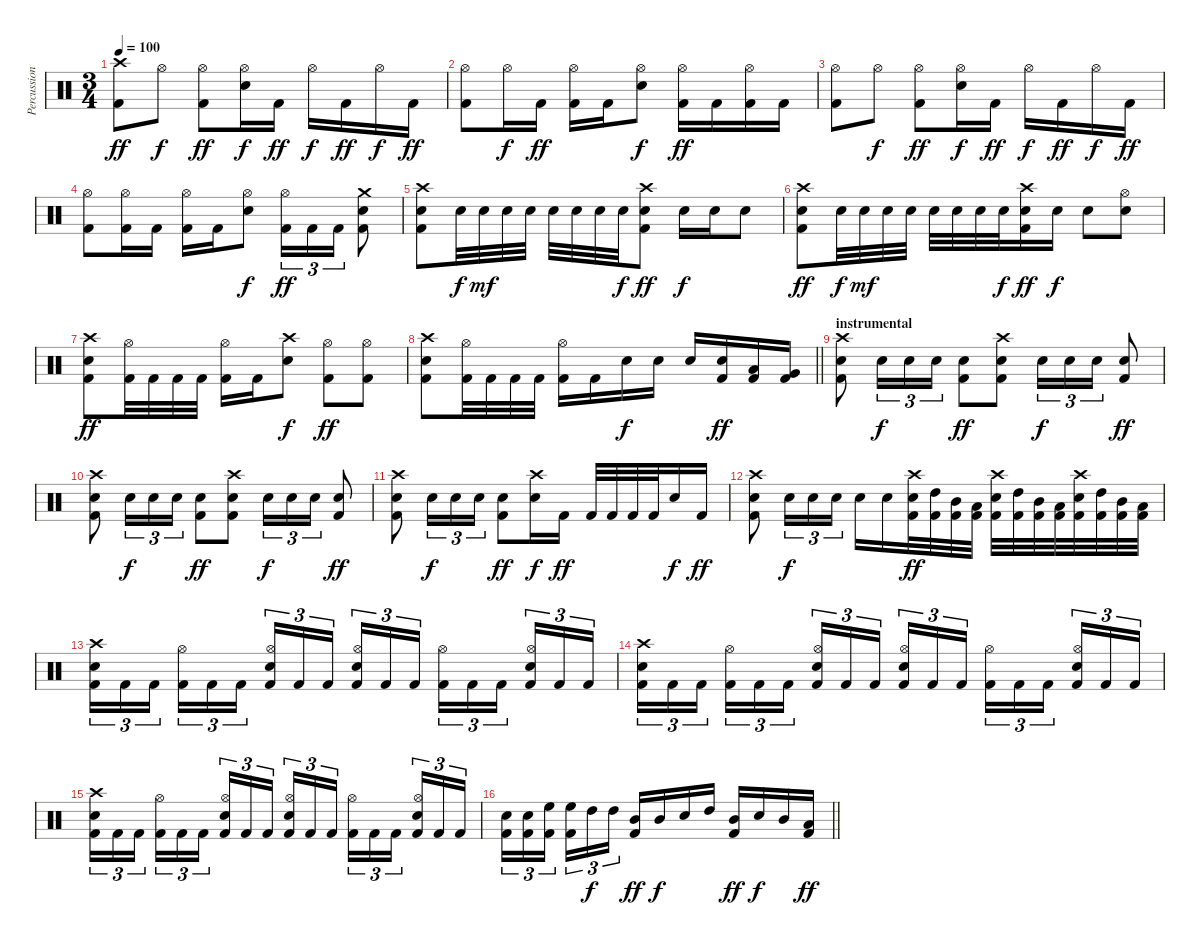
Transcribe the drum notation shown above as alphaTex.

\track ("Percussion" "Percussion") {instrument percussion}
\staff {score}
\articulation defaults
\ts (3 4)
\tempo 100
\clef neutral
\ks c
("Crash high (hit)" "Kick (hit) 2").8{dy ff} "Hi-Hat (open)".8{dy f} ("Hi-Hat (open)" "Kick (hit) 2").8{dy ff} ("Hi-Hat (open)" "Snare (hit) 2").16{dy f} "Kick (hit) 2".16{dy ff} "Hi-Hat (open)".16{dy f} "Kick (hit) 2".16{dy ff} "Hi-Hat (open)".16{dy f} "Kick (hit) 2".16{dy ff} |
("Hi-Hat (open)" "Kick (hit) 2").8 "Hi-Hat (open)".16{dy f} "Kick (hit) 2".16{dy ff} ("Hi-Hat (open)" "Kick (hit) 2").16 "Kick (hit) 2".16 ("Hi-Hat (open)" "Snare (hit) 2").8{dy f} ("Hi-Hat (open)" "Kick (hit) 2").16{dy ff} "Kick (hit) 2".16 ("Hi-Hat (open)" "Kick (hit) 2").16 "Kick (hit) 2".16 |
("Hi-Hat (open)" "Kick (hit) 2").8 "Hi-Hat (open)".8{dy f} ("Hi-Hat (open)" "Kick (hit) 2").8{dy ff} ("Hi-Hat (open)" "Snare (hit) 2").16{dy f} "Kick (hit) 2".16{dy ff} "Hi-Hat (open)".16{dy f} "Kick (hit) 2".16{dy ff} "Hi-Hat (open)".16{dy f} "Kick (hit) 2".16{dy ff} |
("Hi-Hat (open)" "Kick (hit) 2").8 ("Hi-Hat (open)" "Kick (hit) 2").16 "Kick (hit) 2".16 ("Hi-Hat (open)" "Kick (hit) 2").16 "Kick (hit) 2".16 ("Hi-Hat (open)" "Snare (hit) 2").8{dy f} ("Hi-Hat (open)" "Kick (hit) 2").16{tu (3 2) dy ff} "Kick (hit) 2".16{tu (3 2)} "Kick (hit) 2".16{tu (3 2)} ("Crash medium (hit)" "Snare (hit) 2" "Kick (hit) 2").8 |
("Crash high (hit)" "Snare (hit) 2" "Kick (hit) 2").8 "Snare (hit) 2".32{dy f} "Snare (hit) 2".32{dy mf} "Snare (hit) 2".32 "Snare (hit) 2".32 "Snare (hit) 2".32 "Snare (hit) 2".32 "Snare (hit) 2".32 "Snare (hit) 2".32{dy f} ("Crash high (hit)" "Snare (hit) 2" "Kick (hit) 2").8{dy ff} "Snare (hit) 2".16{dy f} "Snare (hit) 2".16 "Snare (hit) 2".8 |
("Crash high (hit)" "Snare (hit) 2" "Kick (hit) 2").8{dy ff} "Snare (hit) 2".32{dy f} "Snare (hit) 2".32{dy mf} "Snare (hit) 2".32 "Snare (hit) 2".32 "Snare (hit) 2".32 "Snare (hit) 2".32 "Snare (hit) 2".32 "Snare (hit) 2".32{dy f} ("Crash high (hit)" "Snare (hit) 2" "Kick (hit) 2").16{dy ff} "Snare (hit) 2".16{dy f} "Snare (hit) 2".8 ("Hi-Hat (open)" "Snare (hit) 2").8 |
("Crash high (hit)" "Snare (hit) 2" "Kick (hit) 2").8{dy ff} ("Hi-Hat (open)" "Kick (hit) 2").32 "Kick (hit) 2".32 "Kick (hit) 2".32 "Kick (hit) 2".32 ("Hi-Hat (open)" "Kick (hit) 2").16 "Kick (hit) 2".16 ("Crash high (hit)" "Snare (hit) 2").8{dy f} ("Hi-Hat (open)" "Kick (hit) 2").8{dy ff} ("Hi-Hat (open)" "Kick (hit) 2").8 |
\barLineRight lightlight
("Crash high (hit)" "Snare (hit) 2" "Kick (hit) 2").8 ("Hi-Hat (open)" "Kick (hit) 2").32 "Kick (hit) 2".32 "Kick (hit) 2".32 "Kick (hit) 2".32 ("Hi-Hat (open)" "Kick (hit) 2").16 "Kick (hit) 2".16 "Snare (hit) 2".16{dy f} "Snare (hit) 2".16 "Snare (hit) 2".16 ("Snare (hit) 2" "Kick (hit) 2").16{dy ff} ("Low Tom (hit)" "Kick (hit) 2").16 ("Very Low Tom (hit)" "Kick (hit) 2").16 |
\section ("" "instrumental")
("Crash high (hit)" "Snare (hit) 2" "Kick (hit) 2").8 "Snare (hit) 2".16{tu (3 2) dy f} "Snare (hit) 2".16{tu (3 2)} "Snare (hit) 2".16{tu (3 2)} ("Snare (hit) 2" "Kick (hit) 2").8{dy ff} ("Crash high (hit)" "Snare (hit) 2" "Kick (hit) 2").8 "Snare (hit) 2".16{tu (3 2) dy f} "Snare (hit) 2".16{tu (3 2)} "Snare (hit) 2".16{tu (3 2)} ("Snare (hit) 2" "Kick (hit) 2").8{dy ff} |
("Crash high (hit)" "Snare (hit) 2" "Kick (hit) 2").8 "Snare (hit) 2".16{tu (3 2) dy f} "Snare (hit) 2".16{tu (3 2)} "Snare (hit) 2".16{tu (3 2)} ("Snare (hit) 2" "Kick (hit) 2").8{dy ff} ("Crash high (hit)" "Snare (hit) 2" "Kick (hit) 2").8 "Snare (hit) 2".16{tu (3 2) dy f} "Snare (hit) 2".16{tu (3 2)} "Snare (hit) 2".16{tu (3 2)} ("Snare (hit) 2" "Kick (hit) 2").8{dy ff} |
("Crash high (hit)" "Snare (hit) 2" "Kick (hit) 2").8 "Snare (hit) 2".16{tu (3 2) dy f} "Snare (hit) 2".16{tu (3 2)} "Snare (hit) 2".16{tu (3 2)} ("Snare (hit) 2" "Kick (hit) 2").8{dy ff} ("Crash high (hit)" "Snare (hit) 2").16{dy f} "Kick (hit) 2".16{dy ff} "Kick (hit) 2".32 "Kick (hit) 2".32 "Kick (hit) 2".32 "Kick (hit) 2".32 "Snare (hit) 2".16{dy f} "Kick (hit) 2".16{dy ff} |
("Crash high (hit)" "Snare (hit) 2" "Kick (hit) 2").8 "Snare (hit) 2".16{tu (3 2) dy f} "Snare (hit) 2".16{tu (3 2)} "Snare (hit) 2".16{tu (3 2)} "Snare (hit) 2".16 "Snare (hit) 2".16 ("Crash high (hit)" "Snare (hit) 2" "Kick (hit) 2").32{dy ff} ("High Tom (hit)" "Kick (hit) 2").32 ("Mid Tom (hit)" "Kick (hit) 2").32 ("Low Tom (hit)" "Kick (hit) 2").32 ("Crash high (hit)" "Snare (hit) 2" "Kick (hit) 2").32 ("High Tom (hit)" "Kick (hit) 2").32 ("Mid Tom (hit)" "Kick (hit) 2").32 ("Low Tom (hit)" "Kick (hit) 2").32 ("Crash high (hit)" "Snare (hit) 2" "Kick (hit) 2").32 ("High Tom (hit)" "Kick (hit) 2").32 ("Mid Tom (hit)" "Kick (hit) 2").32 ("Low Tom (hit)" "Kick (hit) 2").32 |
("Crash high (hit)" "Snare (hit) 2" "Kick (hit) 2").16{tu (3 2)} "Kick (hit) 2".16{tu (3 2)} "Kick (hit) 2".16{tu (3 2) beam splitsecondary} ("Hi-Hat (open)" "Kick (hit) 2").16{tu (3 2)} "Kick (hit) 2".16{tu (3 2)} "Kick (hit) 2".16{tu (3 2)} ("Hi-Hat (open)" "Snare (hit) 2" "Kick (hit) 2").16{tu (3 2)} "Kick (hit) 2".16{tu (3 2)} "Kick (hit) 2".16{tu (3 2) beam splitsecondary} ("Hi-Hat (open)" "Snare (hit) 2" "Kick (hit) 2").16{tu (3 2)} "Kick (hit) 2".16{tu (3 2)} "Kick (hit) 2".16{tu (3 2)} ("Hi-Hat (open)" "Kick (hit) 2").16{tu (3 2)} "Kick (hit) 2".16{tu (3 2)} "Kick (hit) 2".16{tu (3 2) beam splitsecondary} ("Hi-Hat (open)" "Snare (hit) 2" "Kick (hit) 2").16{tu (3 2)} "Kick (hit) 2".16{tu (3 2)} "Kick (hit) 2".16{tu (3 2)} |
("Crash high (hit)" "Snare (hit) 2" "Kick (hit) 2").16{tu (3 2)} "Kick (hit) 2".16{tu (3 2)} "Kick (hit) 2".16{tu (3 2) beam splitsecondary} ("Hi-Hat (open)" "Kick (hit) 2").16{tu (3 2)} "Kick (hit) 2".16{tu (3 2)} "Kick (hit) 2".16{tu (3 2)} ("Hi-Hat (open)" "Snare (hit) 2" "Kick (hit) 2").16{tu (3 2)} "Kick (hit) 2".16{tu (3 2)} "Kick (hit) 2".16{tu (3 2) beam splitsecondary} ("Hi-Hat (open)" "Snare (hit) 2" "Kick (hit) 2").16{tu (3 2)} "Kick (hit) 2".16{tu (3 2)} "Kick (hit) 2".16{tu (3 2)} ("Hi-Hat (open)" "Kick (hit) 2").16{tu (3 2)} "Kick (hit) 2".16{tu (3 2)} "Kick (hit) 2".16{tu (3 2) beam splitsecondary} ("Hi-Hat (open)" "Snare (hit) 2" "Kick (hit) 2").16{tu (3 2)} "Kick (hit) 2".16{tu (3 2)} "Kick (hit) 2".16{tu (3 2)} |
("Crash high (hit)" "Snare (hit) 2" "Kick (hit) 2").16{tu (3 2)} "Kick (hit) 2".16{tu (3 2)} "Kick (hit) 2".16{tu (3 2) beam splitsecondary} ("Hi-Hat (open)" "Kick (hit) 2").16{tu (3 2)} "Kick (hit) 2".16{tu (3 2)} "Kick (hit) 2".16{tu (3 2)} ("Hi-Hat (open)" "Snare (hit) 2" "Kick (hit) 2").16{tu (3 2)} "Kick (hit) 2".16{tu (3 2)} "Kick (hit) 2".16{tu (3 2) beam splitsecondary} ("Hi-Hat (open)" "Snare (hit) 2" "Kick (hit) 2").16{tu (3 2)} "Kick (hit) 2".16{tu (3 2)} "Kick (hit) 2".16{tu (3 2)} ("Hi-Hat (open)" "Kick (hit) 2").16{tu (3 2)} "Kick (hit) 2".16{tu (3 2)} "Kick (hit) 2".16{tu (3 2) beam splitsecondary} ("Hi-Hat (open)" "Snare (hit) 2" "Kick (hit) 2").16{tu (3 2)} "Kick (hit) 2".16{tu (3 2)} "Kick (hit) 2".16{tu (3 2)} |
\barLineRight lightlight
("Snare (hit) 2" "Kick (hit) 2").16{tu (3 2)} ("Snare (hit) 2" "Kick (hit) 2").16{tu (3 2)} ("High Floor Tom (hit)" "Kick (hit) 2").16{tu (3 2) beam splitsecondary} ("High Floor Tom (hit)" "Kick (hit) 2").16{tu (3 2)} "High Tom (hit)".16{tu (3 2) dy f} "High Tom (hit)".16{tu (3 2)} ("Mid Tom (hit)" "Kick (hit) 2").16{dy ff} "Mid Tom (hit)".16{dy f} "Snare (hit) 2".16 "High Tom (hit)".16 ("Mid Tom (hit)" "Kick (hit) 2").16{dy ff} "Snare (hit) 2".16{dy f} "Mid Tom (hit)".16 ("Low Tom (hit)" "Kick (hit) 2").16{dy ff}
